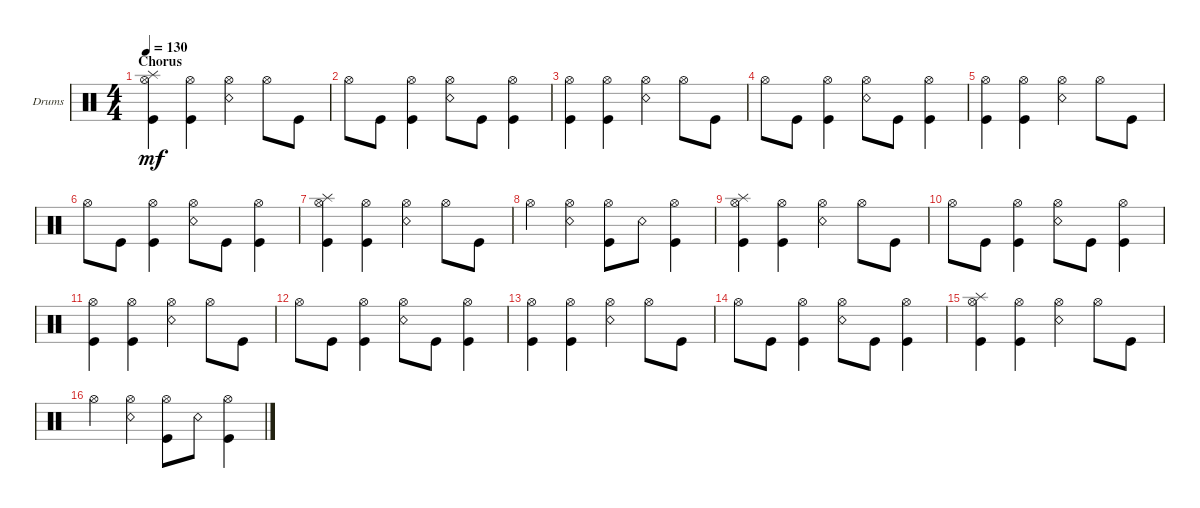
\defaultSystemsLayout 4
\bracketExtendMode groupsimilarinstruments
\firstSystemTrackNameOrientation horizontal
\otherSystemsTrackNameOrientation horizontal
\track ("Drumkit" "Drums") {instrument percussion}
\staff {score}
\articulation defaults
\ts (4 4)
\section ("" "Chorus")
\tempo 130
\clef neutral
\scale
0.333333
\ks c
("Kick (hit)" "Splash (hit)" "Hi-Hat (open)").4{dy mf} ("Kick (hit)" "Hi-Hat (open)").4 ("Snare (rim shot)" "Hi-Hat (open)").4 "Hi-Hat (open)".8 "Kick (hit)".8 |
\scale
0.333333 "Hi-Hat (open)".8 "Kick (hit)".8 ("Kick (hit)" "Hi-Hat (open)").4 ("Snare (rim shot)" "Hi-Hat (open)").8 "Kick (hit)".8 ("Kick (hit)" "Hi-Hat (open)").4 |
\scale
0.333333 ("Kick (hit)" "Hi-Hat (open)").4 ("Kick (hit)" "Hi-Hat (open)").4 ("Snare (rim shot)" "Hi-Hat (open)").4 "Hi-Hat (open)".8 "Kick (hit)".8 |
\scale
0.333333 "Hi-Hat (open)".8 "Kick (hit)".8 ("Kick (hit)" "Hi-Hat (open)").4 ("Snare (rim shot)" "Hi-Hat (open)").8 "Kick (hit)".8 ("Kick (hit)" "Hi-Hat (open)").4 |
\scale
0.333333 ("Kick (hit)" "Hi-Hat (open)").4 ("Kick (hit)" "Hi-Hat (open)").4 ("Snare (rim shot)" "Hi-Hat (open)").4 "Hi-Hat (open)".8 "Kick (hit)".8 |
\scale
0.333333 "Hi-Hat (open)".8 "Kick (hit)".8 ("Kick (hit)" "Hi-Hat (open)").4 ("Snare (rim shot)" "Hi-Hat (open)").8 "Kick (hit)".8 ("Kick (hit)" "Hi-Hat (open)").4 |
\scale
0.333333 ("Kick (hit)" "Splash (hit)" "Hi-Hat (open)").4 ("Kick (hit)" "Hi-Hat (open)").4 ("Snare (rim shot)" "Hi-Hat (open)").4 "Hi-Hat (open)".8 "Kick (hit)".8 |
\scale
0.333333 "Hi-Hat (open)".4 ("Snare (rim shot)" "Hi-Hat (open)").4 ("Kick (hit)" "Hi-Hat (open)").8 "Snare (rim shot)".8 ("Kick (hit)" "Hi-Hat (open)").4 |
\scale
0.333333 ("Kick (hit)" "Splash (hit)" "Hi-Hat (open)").4 ("Kick (hit)" "Hi-Hat (open)").4 ("Snare (rim shot)" "Hi-Hat (open)").4 "Hi-Hat (open)".8 "Kick (hit)".8 |
\scale
0.333333 "Hi-Hat (open)".8 "Kick (hit)".8 ("Kick (hit)" "Hi-Hat (open)").4 ("Snare (rim shot)" "Hi-Hat (open)").8 "Kick (hit)".8 ("Kick (hit)" "Hi-Hat (open)").4 |
\scale
0.333333 ("Kick (hit)" "Hi-Hat (open)").4 ("Kick (hit)" "Hi-Hat (open)").4 ("Snare (rim shot)" "Hi-Hat (open)").4 "Hi-Hat (open)".8 "Kick (hit)".8 |
\scale
0.333333 "Hi-Hat (open)".8 "Kick (hit)".8 ("Kick (hit)" "Hi-Hat (open)").4 ("Snare (rim shot)" "Hi-Hat (open)").8 "Kick (hit)".8 ("Kick (hit)" "Hi-Hat (open)").4 |
\scale
0.333333 ("Kick (hit)" "Hi-Hat (open)").4 ("Kick (hit)" "Hi-Hat (open)").4 ("Snare (rim shot)" "Hi-Hat (open)").4 "Hi-Hat (open)".8 "Kick (hit)".8 |
\scale
0.333333 "Hi-Hat (open)".8 "Kick (hit)".8 ("Kick (hit)" "Hi-Hat (open)").4 ("Snare (rim shot)" "Hi-Hat (open)").8 "Kick (hit)".8 ("Kick (hit)" "Hi-Hat (open)").4 |
\scale
0.333333 ("Kick (hit)" "Splash (hit)" "Hi-Hat (open)").4 ("Kick (hit)" "Hi-Hat (open)").4 ("Snare (rim shot)" "Hi-Hat (open)").4 "Hi-Hat (open)".8 "Kick (hit)".8 |
\scale
0.333333 "Hi-Hat (open)".4 ("Snare (rim shot)" "Hi-Hat (open)").4 ("Kick (hit)" "Hi-Hat (open)").8 "Snare (rim shot)".8 ("Kick (hit)" "Hi-Hat (open)").4
